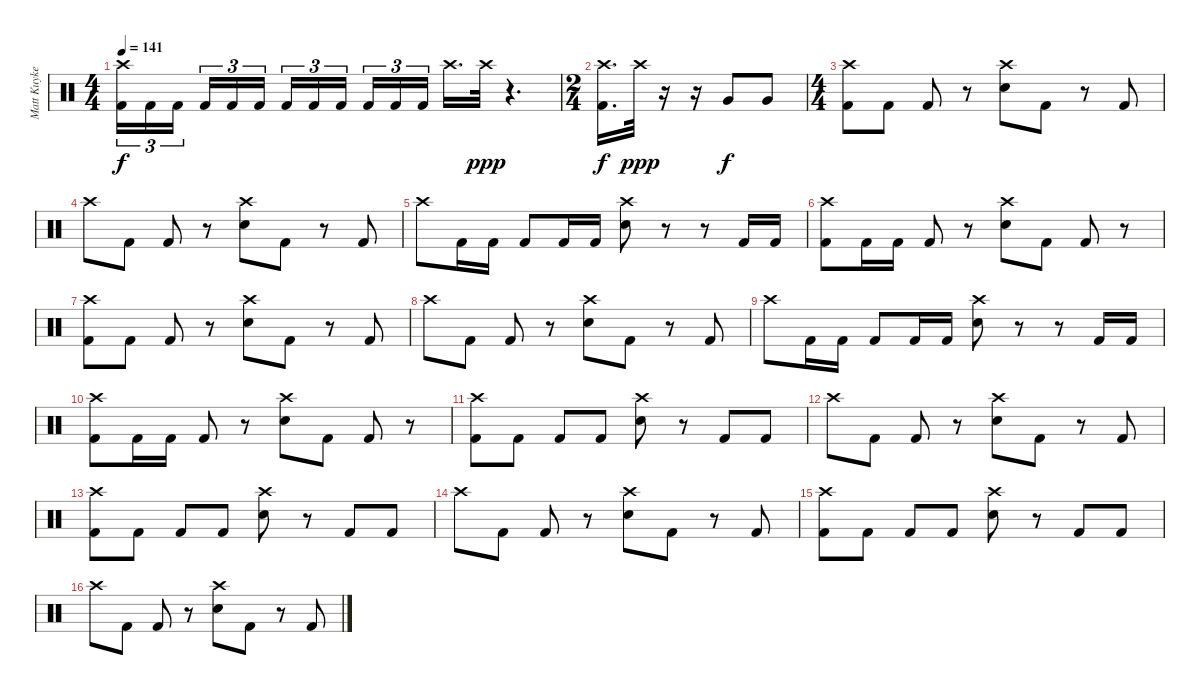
\track ("Matt Kuykendall" "Matt Kuyke") {instrument percussion}
\staff {score}
\articulation defaults
\ts (4 4)
\tempo 141
\clef neutral
\ks c
("Crash high (hit)" "Kick (hit) 2").16{tu (3 2) dy f} "Kick (hit) 2".16{tu (3 2)} "Kick (hit) 2".16{tu (3 2) beam splitsecondary} "Kick (hit) 2".16{tu (3 2)} "Kick (hit) 2".16{tu (3 2)} "Kick (hit) 2".16{tu (3 2)} "Kick (hit) 2".16{tu (3 2)} "Kick (hit) 2".16{tu (3 2)} "Kick (hit) 2".16{tu (3 2) beam splitsecondary} "Kick (hit) 2".16{tu (3 2)} "Kick (hit) 2".16{tu (3 2)} "Kick (hit) 2".16{tu (3 2)} "Crash high (hit)".16{d} "Crash high (hit)".32{dy ppp} r.4{d} |
\ts (2 4)
("Crash high (hit)" "Kick (hit) 2").16{d dy f} "Crash high (hit)".32{dy ppp} r.16 r.16 "Very Low Tom (hit)".8{dy f} "Very Low Tom (hit)".8 |
\ts (4 4)
("Crash high (hit)" "Kick (hit) 2").8 "Kick (hit) 2".8 "Kick (hit) 2".8 r.8 ("Crash high (hit)" "Electric Snare (hit)").8 "Kick (hit) 2".8 r.8 "Kick (hit) 2".8 |
"Crash high (hit)".8 "Kick (hit) 2".8 "Kick (hit) 2".8 r.8 ("Crash high (hit)" "Electric Snare (hit)").8 "Kick (hit) 2".8 r.8 "Kick (hit) 2".8 |
"Crash high (hit)".8 "Kick (hit) 2".16 "Kick (hit) 2".16 "Kick (hit) 2".8 "Kick (hit) 2".16 "Kick (hit) 2".16 ("Crash high (hit)" "Electric Snare (hit)").8 r.8 r.8 "Kick (hit) 2".16 "Kick (hit) 2".16 |
("Crash high (hit)" "Kick (hit) 2").8 "Kick (hit) 2".16 "Kick (hit) 2".16 "Kick (hit) 2".8 r.8 ("Crash high (hit)" "Electric Snare (hit)").8 "Kick (hit) 2".8 "Kick (hit) 2".8 r.8 |
("Crash high (hit)" "Kick (hit) 2").8 "Kick (hit) 2".8 "Kick (hit) 2".8 r.8 ("Crash high (hit)" "Electric Snare (hit)").8 "Kick (hit) 2".8 r.8 "Kick (hit) 2".8 |
"Crash high (hit)".8 "Kick (hit) 2".8 "Kick (hit) 2".8 r.8 ("Crash high (hit)" "Electric Snare (hit)").8 "Kick (hit) 2".8 r.8 "Kick (hit) 2".8 |
"Crash high (hit)".8 "Kick (hit) 2".16 "Kick (hit) 2".16 "Kick (hit) 2".8 "Kick (hit) 2".16 "Kick (hit) 2".16 ("Crash high (hit)" "Electric Snare (hit)").8 r.8 r.8 "Kick (hit) 2".16 "Kick (hit) 2".16 |
("Crash high (hit)" "Kick (hit) 2").8 "Kick (hit) 2".16 "Kick (hit) 2".16 "Kick (hit) 2".8 r.8 ("Crash high (hit)" "Electric Snare (hit)").8 "Kick (hit) 2".8 "Kick (hit) 2".8 r.8 |
("Crash high (hit)" "Kick (hit) 2").8 "Kick (hit) 2".8 "Kick (hit) 2".8 "Kick (hit) 2".8 ("Crash high (hit)" "Electric Snare (hit)").8 r.8 "Kick (hit) 2".8 "Kick (hit) 2".8 |
"Crash high (hit)".8 "Kick (hit) 2".8 "Kick (hit) 2".8 r.8 ("Crash high (hit)" "Electric Snare (hit)").8 "Kick (hit) 2".8 r.8 "Kick (hit) 2".8 |
("Crash high (hit)" "Kick (hit) 2").8 "Kick (hit) 2".8 "Kick (hit) 2".8 "Kick (hit) 2".8 ("Crash high (hit)" "Electric Snare (hit)").8 r.8 "Kick (hit) 2".8 "Kick (hit) 2".8 |
"Crash high (hit)".8 "Kick (hit) 2".8 "Kick (hit) 2".8 r.8 ("Crash high (hit)" "Electric Snare (hit)").8 "Kick (hit) 2".8 r.8 "Kick (hit) 2".8 |
("Crash high (hit)" "Kick (hit) 2").8 "Kick (hit) 2".8 "Kick (hit) 2".8 "Kick (hit) 2".8 ("Crash high (hit)" "Electric Snare (hit)").8 r.8 "Kick (hit) 2".8 "Kick (hit) 2".8 |
"Crash high (hit)".8 "Kick (hit) 2".8 "Kick (hit) 2".8 r.8 ("Crash high (hit)" "Electric Snare (hit)").8 "Kick (hit) 2".8 r.8 "Kick (hit) 2".8
